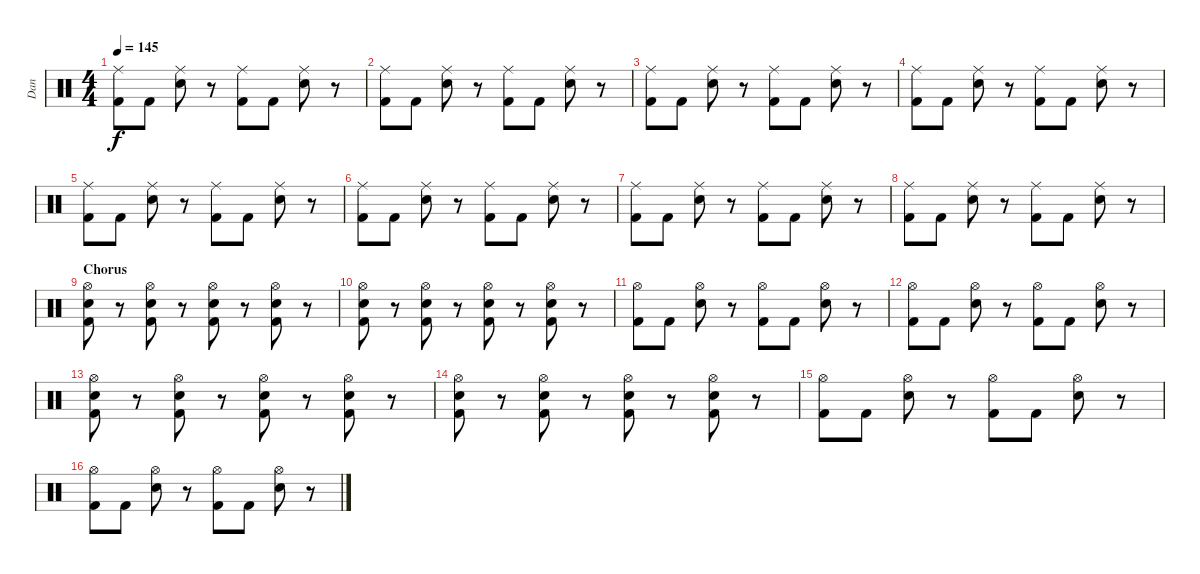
\track ("Dan" "Dan") {instrument percussion}
\staff {score}
\articulation defaults
\ts (4 4)
\tempo 145
\clef neutral
\ks c
("Ride (middle)" "Kick (hit) 2").8{dy f} "Kick (hit) 2".8 ("Ride (middle)" "Snare (hit) 2").8 r.8 ("Ride (middle)" "Kick (hit) 2").8 "Kick (hit) 2".8 ("Ride (middle)" "Snare (hit) 2").8 r.8 |
("Ride (middle)" "Kick (hit) 2").8 "Kick (hit) 2".8 ("Ride (middle)" "Snare (hit) 2").8 r.8 ("Ride (middle)" "Kick (hit) 2").8 "Kick (hit) 2".8 ("Ride (middle)" "Snare (hit) 2").8 r.8 |
("Ride (middle)" "Kick (hit) 2").8 "Kick (hit) 2".8 ("Ride (middle)" "Snare (hit) 2").8 r.8 ("Ride (middle)" "Kick (hit) 2").8 "Kick (hit) 2".8 ("Ride (middle)" "Snare (hit) 2").8 r.8 |
("Ride (middle)" "Kick (hit) 2").8 "Kick (hit) 2".8 ("Ride (middle)" "Snare (hit) 2").8 r.8 ("Ride (middle)" "Kick (hit) 2").8 "Kick (hit) 2".8 ("Ride (middle)" "Snare (hit) 2").8 r.8 |
("Ride (middle)" "Kick (hit) 2").8 "Kick (hit) 2".8 ("Ride (middle)" "Snare (hit) 2").8 r.8 ("Ride (middle)" "Kick (hit) 2").8 "Kick (hit) 2".8 ("Ride (middle)" "Snare (hit) 2").8 r.8 |
("Ride (middle)" "Kick (hit) 2").8 "Kick (hit) 2".8 ("Ride (middle)" "Snare (hit) 2").8 r.8 ("Ride (middle)" "Kick (hit) 2").8 "Kick (hit) 2".8 ("Ride (middle)" "Snare (hit) 2").8 r.8 |
("Ride (middle)" "Kick (hit) 2").8 "Kick (hit) 2".8 ("Ride (middle)" "Snare (hit) 2").8 r.8 ("Ride (middle)" "Kick (hit) 2").8 "Kick (hit) 2".8 ("Ride (middle)" "Snare (hit) 2").8 r.8 |
("Ride (middle)" "Kick (hit) 2").8 "Kick (hit) 2".8 ("Ride (middle)" "Snare (hit) 2").8 r.8 ("Ride (middle)" "Kick (hit) 2").8 "Kick (hit) 2".8 ("Ride (middle)" "Snare (hit) 2").8 r.8 |
\section ("" "Chorus")
("Hi-Hat (open)" "Snare (hit) 2" "Kick (hit) 2").8 r.8 ("Hi-Hat (open)" "Snare (hit) 2" "Kick (hit) 2").8 r.8 ("Hi-Hat (open)" "Snare (hit) 2" "Kick (hit) 2").8 r.8 ("Hi-Hat (open)" "Snare (hit) 2" "Kick (hit) 2").8 r.8 |
("Hi-Hat (open)" "Snare (hit) 2" "Kick (hit) 2").8 r.8 ("Hi-Hat (open)" "Snare (hit) 2" "Kick (hit) 2").8 r.8 ("Hi-Hat (open)" "Snare (hit) 2" "Kick (hit) 2").8 r.8 ("Hi-Hat (open)" "Snare (hit) 2" "Kick (hit) 2").8 r.8 |
("Hi-Hat (open)" "Kick (hit) 2").8 "Kick (hit) 2".8 ("Hi-Hat (open)" "Snare (hit) 2").8 r.8 ("Hi-Hat (open)" "Kick (hit) 2").8 "Kick (hit) 2".8 ("Hi-Hat (open)" "Snare (hit) 2").8 r.8 |
("Hi-Hat (open)" "Kick (hit) 2").8 "Kick (hit) 2".8 ("Hi-Hat (open)" "Snare (hit) 2").8 r.8 ("Hi-Hat (open)" "Kick (hit) 2").8 "Kick (hit) 2".8 ("Hi-Hat (open)" "Snare (hit) 2").8 r.8 |
("Hi-Hat (open)" "Snare (hit) 2" "Kick (hit) 2").8 r.8 ("Hi-Hat (open)" "Snare (hit) 2" "Kick (hit) 2").8 r.8 ("Hi-Hat (open)" "Snare (hit) 2" "Kick (hit) 2").8 r.8 ("Hi-Hat (open)" "Snare (hit) 2" "Kick (hit) 2").8 r.8 |
("Hi-Hat (open)" "Snare (hit) 2" "Kick (hit) 2").8 r.8 ("Hi-Hat (open)" "Snare (hit) 2" "Kick (hit) 2").8 r.8 ("Hi-Hat (open)" "Snare (hit) 2" "Kick (hit) 2").8 r.8 ("Hi-Hat (open)" "Snare (hit) 2" "Kick (hit) 2").8 r.8 |
("Hi-Hat (open)" "Kick (hit) 2").8 "Kick (hit) 2".8 ("Hi-Hat (open)" "Snare (hit) 2").8 r.8 ("Hi-Hat (open)" "Kick (hit) 2").8 "Kick (hit) 2".8 ("Hi-Hat (open)" "Snare (hit) 2").8 r.8 |
("Hi-Hat (open)" "Kick (hit) 2").8 "Kick (hit) 2".8 ("Hi-Hat (open)" "Snare (hit) 2").8 r.8 ("Hi-Hat (open)" "Kick (hit) 2").8 "Kick (hit) 2".8 ("Hi-Hat (open)" "Snare (hit) 2").8 r.8
